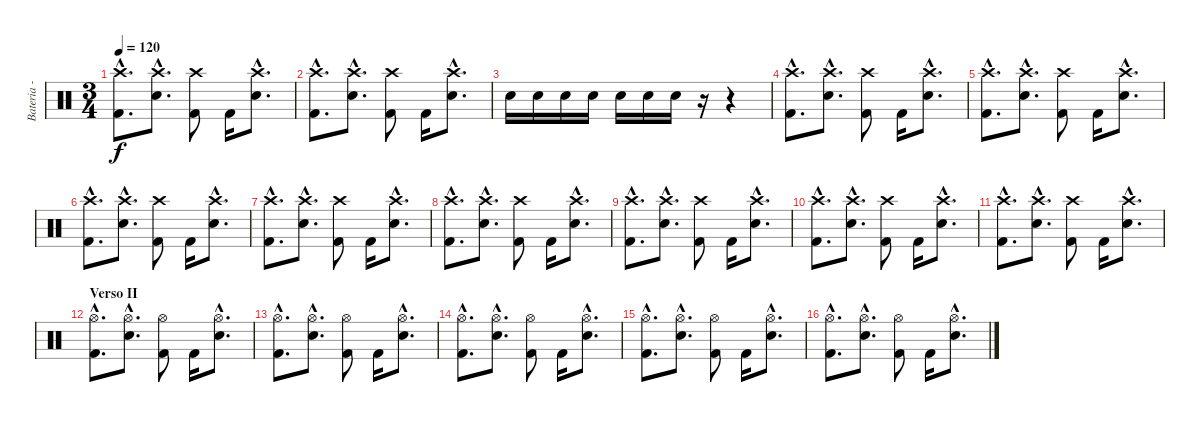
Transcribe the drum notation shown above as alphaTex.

\track ("Bateria - Larzon" "Bateria - ") {instrument percussion}
\staff {score}
\articulation defaults
\ts (3 4)
\tempo 120
\clef neutral
\ks c
("Kick (hit) 2"{hac} "Crash high (hit)"{hac}).8{d dy f} ("Snare (hit) 2"{hac} "Crash high (hit)"{hac}).8{d} ("Kick (hit) 2" "Crash high (hit)").8 "Kick (hit) 2".16 ("Snare (hit) 2"{hac} "Crash high (hit)"{hac}).8{d} |
("Kick (hit) 2"{hac} "Crash high (hit)"{hac}).8{d} ("Snare (hit) 2"{hac} "Crash high (hit)"{hac}).8{d} ("Kick (hit) 2" "Crash high (hit)").8 "Kick (hit) 2".16 ("Snare (hit) 2"{hac} "Crash high (hit)"{hac}).8{d} |
"Snare (hit) 2".16 "Snare (hit) 2".16 "Snare (hit) 2".16 "Snare (hit) 2".16 "Snare (hit) 2".16 "Snare (hit) 2".16 "Snare (hit) 2".16 r.16 r.4 |
("Kick (hit) 2"{hac} "Crash high (hit)"{hac}).8{d} ("Snare (hit) 2"{hac} "Crash high (hit)"{hac}).8{d} ("Kick (hit) 2" "Crash high (hit)").8 "Kick (hit) 2".16 ("Snare (hit) 2"{hac} "Crash high (hit)"{hac}).8{d} |
("Kick (hit) 2"{hac} "Crash high (hit)"{hac}).8{d} ("Snare (hit) 2"{hac} "Crash high (hit)"{hac}).8{d} ("Kick (hit) 2" "Crash high (hit)").8 "Kick (hit) 2".16 ("Snare (hit) 2"{hac} "Crash high (hit)"{hac}).8{d} |
("Kick (hit) 2"{hac} "Crash high (hit)"{hac}).8{d} ("Snare (hit) 2"{hac} "Crash high (hit)"{hac}).8{d} ("Kick (hit) 2" "Crash high (hit)").8 "Kick (hit) 2".16 ("Snare (hit) 2"{hac} "Crash high (hit)"{hac}).8{d} |
("Kick (hit) 2"{hac} "Crash high (hit)"{hac}).8{d} ("Snare (hit) 2"{hac} "Crash high (hit)"{hac}).8{d} ("Kick (hit) 2" "Crash high (hit)").8 "Kick (hit) 2".16 ("Snare (hit) 2"{hac} "Crash high (hit)"{hac}).8{d} |
("Kick (hit) 2"{hac} "Crash high (hit)"{hac}).8{d} ("Snare (hit) 2"{hac} "Crash high (hit)"{hac}).8{d} ("Kick (hit) 2" "Crash high (hit)").8 "Kick (hit) 2".16 ("Snare (hit) 2"{hac} "Crash high (hit)"{hac}).8{d} |
("Kick (hit) 2"{hac} "Crash high (hit)"{hac}).8{d} ("Snare (hit) 2"{hac} "Crash high (hit)"{hac}).8{d} ("Kick (hit) 2" "Crash high (hit)").8 "Kick (hit) 2".16 ("Snare (hit) 2"{hac} "Crash high (hit)"{hac}).8{d} |
("Kick (hit) 2"{hac} "Crash high (hit)"{hac}).8{d} ("Snare (hit) 2"{hac} "Crash high (hit)"{hac}).8{d} ("Kick (hit) 2" "Crash high (hit)").8 "Kick (hit) 2".16 ("Snare (hit) 2"{hac} "Crash high (hit)"{hac}).8{d} |
("Kick (hit) 2"{hac} "Crash high (hit)"{hac}).8{d} ("Snare (hit) 2"{hac} "Crash high (hit)"{hac}).8{d} ("Kick (hit) 2" "Crash high (hit)").8 "Kick (hit) 2".16 ("Snare (hit) 2"{hac} "Crash high (hit)"{hac}).8{d} |
\section ("" "Verso II")
("Kick (hit) 2"{hac} "Hi-Hat (open)"{hac}).8{d} ("Snare (hit) 2"{hac} "Hi-Hat (open)"{hac}).8{d} ("Kick (hit) 2" "Hi-Hat (open)").8 "Kick (hit) 2".16 ("Snare (hit) 2"{hac} "Hi-Hat (open)"{hac}).8{d} |
("Kick (hit) 2"{hac} "Hi-Hat (open)"{hac}).8{d} ("Snare (hit) 2"{hac} "Hi-Hat (open)"{hac}).8{d} ("Kick (hit) 2" "Hi-Hat (open)").8 "Kick (hit) 2".16 ("Snare (hit) 2"{hac} "Hi-Hat (open)"{hac}).8{d} |
("Kick (hit) 2"{hac} "Hi-Hat (open)"{hac}).8{d} ("Snare (hit) 2"{hac} "Hi-Hat (open)"{hac}).8{d} ("Kick (hit) 2" "Hi-Hat (open)").8 "Kick (hit) 2".16 ("Snare (hit) 2"{hac} "Hi-Hat (open)"{hac}).8{d} |
("Kick (hit) 2"{hac} "Hi-Hat (open)"{hac}).8{d} ("Snare (hit) 2"{hac} "Hi-Hat (open)"{hac}).8{d} ("Kick (hit) 2" "Hi-Hat (open)").8 "Kick (hit) 2".16 ("Snare (hit) 2"{hac} "Hi-Hat (open)"{hac}).8{d} |
("Kick (hit) 2"{hac} "Hi-Hat (open)"{hac}).8{d} ("Snare (hit) 2"{hac} "Hi-Hat (open)"{hac}).8{d} ("Kick (hit) 2" "Hi-Hat (open)").8 "Kick (hit) 2".16 ("Snare (hit) 2"{hac} "Hi-Hat (open)"{hac}).8{d}
